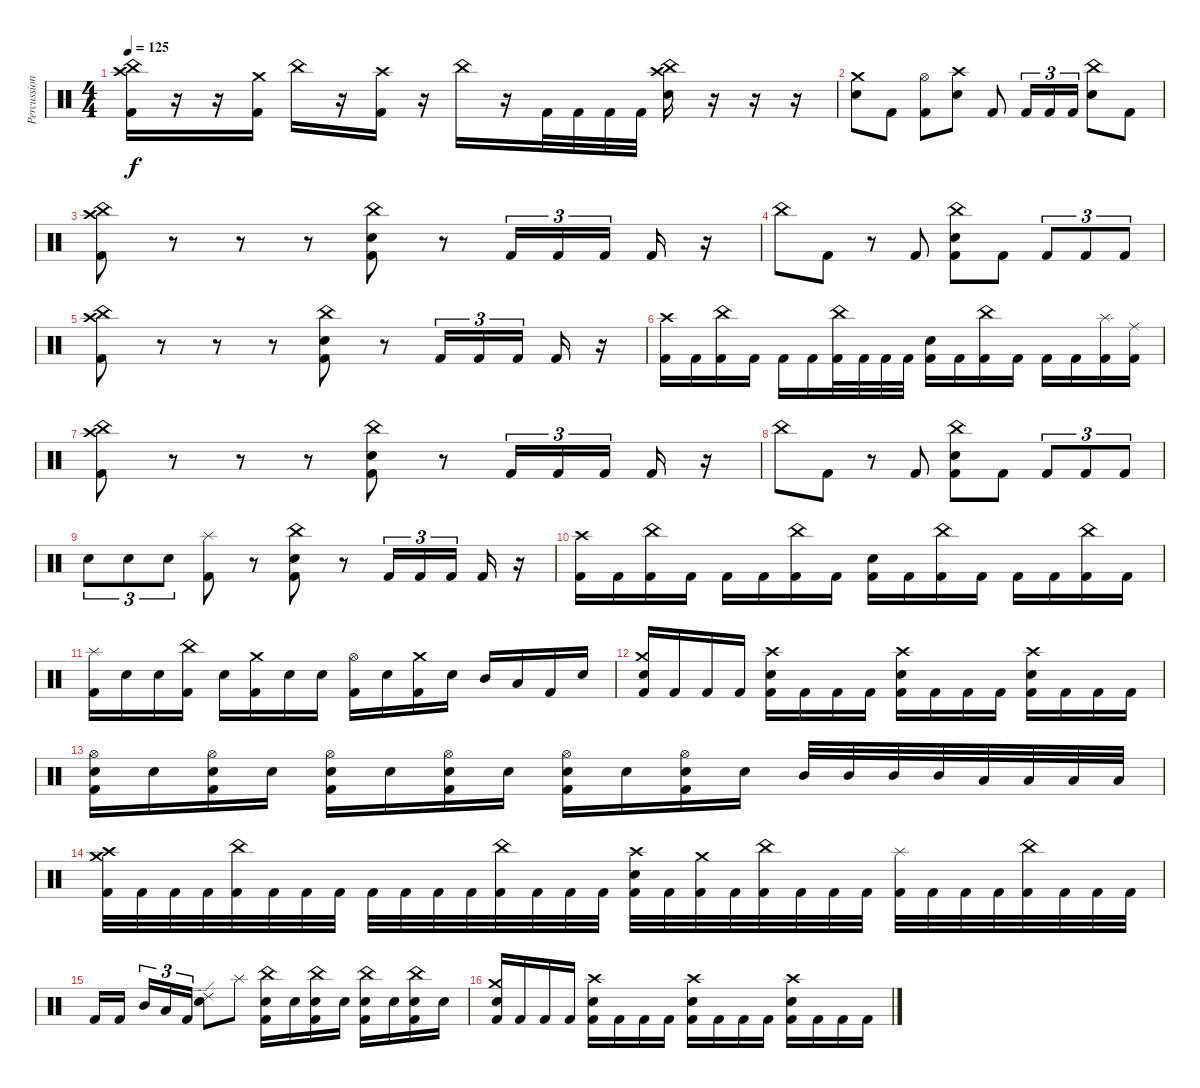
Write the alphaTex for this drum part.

\track ("Percussion" "Percussion") {instrument percussion}
\staff {score}
\articulation defaults
\ts (4 4)
\tempo 125
\clef neutral
\ks c
("Crash high (hit)" "China (hit)" "Kick (hit) 2").16{dy f} r.16 r.16 ("Crash medium (hit)" "Kick (hit) 2").16 "China (hit)".16 r.16 ("Crash high (hit)" "Kick (hit) 2").16 r.16 "China (hit)".16 r.16 "Kick (hit) 2".32 "Kick (hit) 2".32 "Kick (hit) 2".32 "Kick (hit) 2".32 ("Crash high (hit)" "China (hit)" "Electric Snare (hit)").16 r.16 r.16 r.16 |
("Crash medium (hit)" "Electric Snare (hit)").8 "Kick (hit) 2".8 ("Hi-Hat (open)" "Kick (hit) 2").8 ("Crash high (hit)" "Electric Snare (hit)").8 "Kick (hit) 2".8 "Kick (hit) 2".16{tu (3 2)} "Kick (hit) 2".16{tu (3 2)} "Kick (hit) 2".16{tu (3 2)} ("China (hit)" "Electric Snare (hit)").8 "Kick (hit) 2".8 |
("China (hit)" "Crash high (hit)" "Kick (hit) 2").8 r.8 r.8 r.8 ("China (hit)" "Electric Snare (hit)" "Kick (hit) 2").8 r.8 "Kick (hit) 2".16{tu (3 2)} "Kick (hit) 2".16{tu (3 2)} "Kick (hit) 2".16{tu (3 2) beam splitsecondary} "Kick (hit) 2".16 r.16 |
"China (hit)".8 "Kick (hit) 2".8 r.8 "Kick (hit) 2".8 ("China (hit)" "Electric Snare (hit)" "Kick (hit) 2").8 "Kick (hit) 2".8 "Kick (hit) 2".8{tu (3 2)} "Kick (hit) 2".8{tu (3 2)} "Kick (hit) 2".8{tu (3 2)} |
("China (hit)" "Crash high (hit)" "Kick (hit) 2").8 r.8 r.8 r.8 ("China (hit)" "Electric Snare (hit)" "Kick (hit) 2").8 r.8 "Kick (hit) 2".16{tu (3 2)} "Kick (hit) 2".16{tu (3 2)} "Kick (hit) 2".16{tu (3 2) beam splitsecondary} "Kick (hit) 2".16 r.16 |
("Crash high (hit)" "Kick (hit) 2").16 "Kick (hit) 2".16 ("China (hit)" "Kick (hit) 2").16 "Kick (hit) 2".16 "Kick (hit) 2".16 "Kick (hit) 2".16 ("China (hit)" "Kick (hit) 2").32 "Kick (hit) 2".32 "Kick (hit) 2".32 "Kick (hit) 2".32 ("Electric Snare (hit)" "Kick (hit) 2").16 "Kick (hit) 2".16 ("China (hit)" "Kick (hit) 2").16 "Kick (hit) 2".16 "Kick (hit) 2".16 "Kick (hit) 2".16 ("Splash (hit)" "Kick (hit) 2").16 ("Ride (middle)" "Kick (hit) 2").16 |
("China (hit)" "Crash high (hit)" "Kick (hit) 2").8 r.8 r.8 r.8 ("China (hit)" "Electric Snare (hit)" "Kick (hit) 2").8 r.8 "Kick (hit) 2".16{tu (3 2)} "Kick (hit) 2".16{tu (3 2)} "Kick (hit) 2".16{tu (3 2) beam splitsecondary} "Kick (hit) 2".16 r.16 |
"China (hit)".8 "Kick (hit) 2".8 r.8 "Kick (hit) 2".8 ("China (hit)" "Electric Snare (hit)" "Kick (hit) 2").8 "Kick (hit) 2".8 "Kick (hit) 2".8{tu (3 2)} "Kick (hit) 2".8{tu (3 2)} "Kick (hit) 2".8{tu (3 2)} |
"Electric Snare (hit)".8{tu (3 2)} "Electric Snare (hit)".8{tu (3 2)} "Electric Snare (hit)".8{tu (3 2)} ("Splash (hit)" "Kick (hit) 2").8 r.8 ("China (hit)" "Electric Snare (hit)" "Kick (hit) 2").8 r.8 "Kick (hit) 2".16{tu (3 2)} "Kick (hit) 2".16{tu (3 2)} "Kick (hit) 2".16{tu (3 2) beam splitsecondary} "Kick (hit) 2".16 r.16 |
("Crash high (hit)" "Kick (hit) 2").16 "Kick (hit) 2".16 ("China (hit)" "Kick (hit) 2").16 "Kick (hit) 2".16 "Kick (hit) 2".16 "Kick (hit) 2".16 ("China (hit)" "Kick (hit) 2").16 "Kick (hit) 2".16 ("Electric Snare (hit)" "Kick (hit) 2").16 "Kick (hit) 2".16 ("China (hit)" "Kick (hit) 2").16 "Kick (hit) 2".16 "Kick (hit) 2".16 "Kick (hit) 2".16 ("China (hit)" "Kick (hit) 2").16 "Kick (hit) 2".16 |
("Splash (hit)" "Kick (hit) 2").16 "Electric Snare (hit)".16 "Electric Snare (hit)".16 ("China (hit)" "Kick (hit) 2").16 "Electric Snare (hit)".16 ("Crash medium (hit)" "Kick (hit) 2").16 "Electric Snare (hit)".16 "Electric Snare (hit)".16 ("Hi-Hat (open)" "Kick (hit) 2").16 "Electric Snare (hit)".16 ("Crash medium (hit)" "Kick (hit) 2").16 "Electric Snare (hit)".16 "Mid Tom (hit)".16 "Low Tom (hit)".16 "Kick (hit) 2".16 "Electric Snare (hit)".16 |
("Crash medium (hit)" "Electric Snare (hit)" "Kick (hit) 2").16 "Kick (hit) 2".16 "Kick (hit) 2".16 "Kick (hit) 2".16 ("Crash high (hit)" "Electric Snare (hit)" "Kick (hit) 2").16 "Kick (hit) 2".16 "Kick (hit) 2".16 "Kick (hit) 2".16 ("Crash high (hit)" "Electric Snare (hit)" "Kick (hit) 2").16 "Kick (hit) 2".16 "Kick (hit) 2".16 "Kick (hit) 2".16 ("Crash high (hit)" "Electric Snare (hit)" "Kick (hit) 2").16 "Kick (hit) 2".16 "Kick (hit) 2".16 "Kick (hit) 2".16 |
("Hi-Hat (open)" "Electric Snare (hit)" "Kick (hit) 2").16 "Electric Snare (hit)".16 ("Hi-Hat (open)" "Electric Snare (hit)" "Kick (hit) 2").16 "Electric Snare (hit)".16 ("Hi-Hat (open)" "Electric Snare (hit)" "Kick (hit) 2").16 "Electric Snare (hit)".16 ("Hi-Hat (open)" "Electric Snare (hit)" "Kick (hit) 2").16 "Electric Snare (hit)".16 ("Hi-Hat (open)" "Electric Snare (hit)" "Kick (hit) 2").16 "Electric Snare (hit)".16 ("Hi-Hat (open)" "Electric Snare (hit)" "Kick (hit) 2").16 "Electric Snare (hit)".16 "Mid Tom (hit)".32 "Mid Tom (hit)".32 "Mid Tom (hit)".32 "Mid Tom (hit)".32 "Low Tom (hit)".32 "Low Tom (hit)".32 "Low Tom (hit)".32 "Low Tom (hit)".32 |
("Crash medium (hit)" "Crash high (hit)" "Kick (hit) 2").32 "Kick (hit) 2".32 "Kick (hit) 2".32 "Kick (hit) 2".32 ("China (hit)" "Kick (hit) 2").32 "Kick (hit) 2".32 "Kick (hit) 2".32 "Kick (hit) 2".32 "Kick (hit) 2".32 "Kick (hit) 2".32 "Kick (hit) 2".32 "Kick (hit) 2".32 ("China (hit)" "Kick (hit) 2").32 "Kick (hit) 2".32 "Kick (hit) 2".32 "Kick (hit) 2".32 ("Crash high (hit)" "Electric Snare (hit)" "Kick (hit) 2").32 "Kick (hit) 2".32 ("Crash medium (hit)" "Kick (hit) 2").32 "Kick (hit) 2".32 ("China (hit)" "Kick (hit) 2").32 "Kick (hit) 2".32 "Kick (hit) 2".32 "Kick (hit) 2".32 ("Splash (hit)" "Kick (hit) 2").32 "Kick (hit) 2".32 "Kick (hit) 2".32 "Kick (hit) 2".32 ("China (hit)" "Kick (hit) 2").32 "Kick (hit) 2".32 "Kick (hit) 2".32 "Kick (hit) 2".32 |
"Kick (hit) 2".16 "Kick (hit) 2".16{beam splitsecondary} "Mid Tom (hit)".16{tu (3 2)} "Low Tom (hit)".16{tu (3 2)} "Kick (hit) 2".16{tu (3 2)} ("Ride (edge) 2" "Electric Snare (hit)").8 "Splash (hit)".8 ("China (hit)" "Electric Snare (hit)" "Kick (hit) 2").16 "Electric Snare (hit)".16 ("China (hit)" "Electric Snare (hit)" "Kick (hit) 2").16 "Electric Snare (hit)".16 ("China (hit)" "Electric Snare (hit)" "Kick (hit) 2").16 "Electric Snare (hit)".16 ("China (hit)" "Electric Snare (hit)" "Kick (hit) 2").16 "Electric Snare (hit)".16 |
("Crash medium (hit)" "Electric Snare (hit)" "Kick (hit) 2").16 "Kick (hit) 2".16 "Kick (hit) 2".16 "Kick (hit) 2".16 ("Crash high (hit)" "Electric Snare (hit)" "Kick (hit) 2").16 "Kick (hit) 2".16 "Kick (hit) 2".16 "Kick (hit) 2".16 ("Crash high (hit)" "Electric Snare (hit)" "Kick (hit) 2").16 "Kick (hit) 2".16 "Kick (hit) 2".16 "Kick (hit) 2".16 ("Crash high (hit)" "Electric Snare (hit)" "Kick (hit) 2").16 "Kick (hit) 2".16 "Kick (hit) 2".16 "Kick (hit) 2".16
